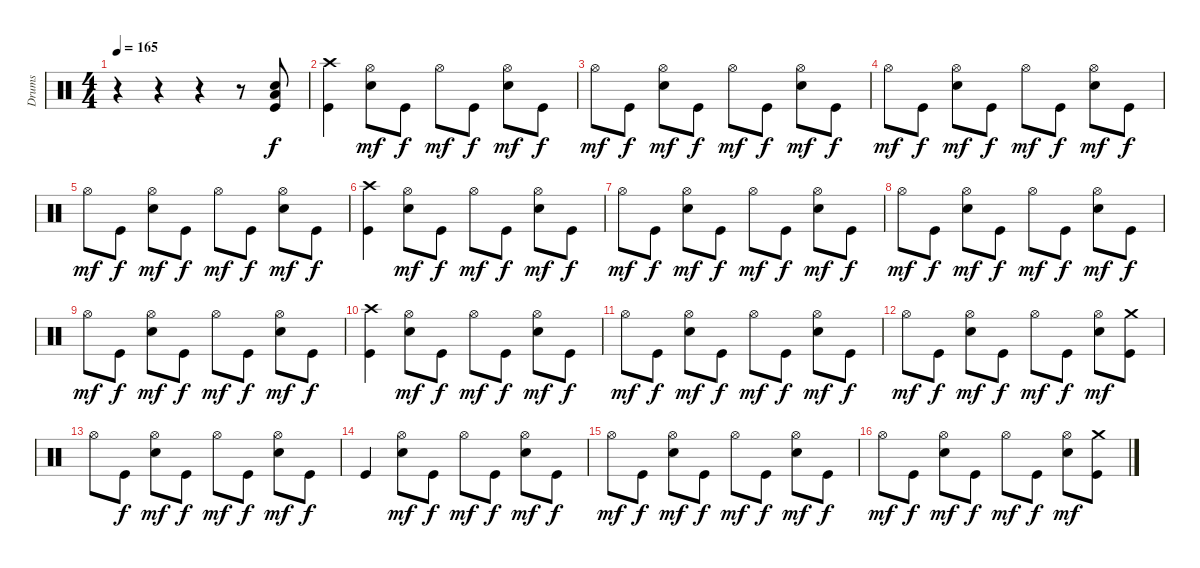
\track ("Drums" "Drums") {instrument percussion}
\staff {score}
\articulation defaults
\ts (4 4)
\tempo 165
\clef neutral
\ks c
r.4{dy f} r.4 r.4 r.8 ("Electric Snare (hit)" "Low Floor Tom (hit)" "Kick (hit)").8 |
("Kick (hit)" "Crash high (hit)").4 ("Electric Snare (hit)" "Hi-Hat (open)").8{dy mf} "Kick (hit)".8{dy f} "Hi-Hat (open)".8{dy mf} "Kick (hit)".8{dy f} ("Electric Snare (hit)" "Hi-Hat (open)").8{dy mf} "Kick (hit)".8{dy f} |
"Hi-Hat (open)".8{dy mf} "Kick (hit)".8{dy f} ("Electric Snare (hit)" "Hi-Hat (open)").8{dy mf} "Kick (hit)".8{dy f} "Hi-Hat (open)".8{dy mf} "Kick (hit)".8{dy f} ("Electric Snare (hit)" "Hi-Hat (open)").8{dy mf} "Kick (hit)".8{dy f} |
"Hi-Hat (open)".8{dy mf} "Kick (hit)".8{dy f} ("Electric Snare (hit)" "Hi-Hat (open)").8{dy mf} "Kick (hit)".8{dy f} "Hi-Hat (open)".8{dy mf} "Kick (hit)".8{dy f} ("Electric Snare (hit)" "Hi-Hat (open)").8{dy mf} "Kick (hit)".8{dy f} |
"Hi-Hat (open)".8{dy mf} "Kick (hit)".8{dy f} ("Electric Snare (hit)" "Hi-Hat (open)").8{dy mf} "Kick (hit)".8{dy f} "Hi-Hat (open)".8{dy mf} "Kick (hit)".8{dy f} ("Electric Snare (hit)" "Hi-Hat (open)").8{dy mf} "Kick (hit)".8{dy f} |
("Kick (hit)" "Crash high (hit)").4 ("Electric Snare (hit)" "Hi-Hat (open)").8{dy mf} "Kick (hit)".8{dy f} "Hi-Hat (open)".8{dy mf} "Kick (hit)".8{dy f} ("Electric Snare (hit)" "Hi-Hat (open)").8{dy mf} "Kick (hit)".8{dy f} |
"Hi-Hat (open)".8{dy mf} "Kick (hit)".8{dy f} ("Electric Snare (hit)" "Hi-Hat (open)").8{dy mf} "Kick (hit)".8{dy f} "Hi-Hat (open)".8{dy mf} "Kick (hit)".8{dy f} ("Electric Snare (hit)" "Hi-Hat (open)").8{dy mf} "Kick (hit)".8{dy f} |
"Hi-Hat (open)".8{dy mf} "Kick (hit)".8{dy f} ("Electric Snare (hit)" "Hi-Hat (open)").8{dy mf} "Kick (hit)".8{dy f} "Hi-Hat (open)".8{dy mf} "Kick (hit)".8{dy f} ("Electric Snare (hit)" "Hi-Hat (open)").8{dy mf} "Kick (hit)".8{dy f} |
"Hi-Hat (open)".8{dy mf} "Kick (hit)".8{dy f} ("Electric Snare (hit)" "Hi-Hat (open)").8{dy mf} "Kick (hit)".8{dy f} "Hi-Hat (open)".8{dy mf} "Kick (hit)".8{dy f} ("Electric Snare (hit)" "Hi-Hat (open)").8{dy mf} "Kick (hit)".8{dy f} |
("Kick (hit)" "Crash high (hit)").4 ("Electric Snare (hit)" "Hi-Hat (open)").8{dy mf} "Kick (hit)".8{dy f} "Hi-Hat (open)".8{dy mf} "Kick (hit)".8{dy f} ("Electric Snare (hit)" "Hi-Hat (open)").8{dy mf} "Kick (hit)".8{dy f} |
"Hi-Hat (open)".8{dy mf} "Kick (hit)".8{dy f} ("Electric Snare (hit)" "Hi-Hat (open)").8{dy mf} "Kick (hit)".8{dy f} "Hi-Hat (open)".8{dy mf} "Kick (hit)".8{dy f} ("Electric Snare (hit)" "Hi-Hat (open)").8{dy mf} "Kick (hit)".8{dy f} |
"Hi-Hat (open)".8{dy mf} "Kick (hit)".8{dy f} ("Electric Snare (hit)" "Hi-Hat (open)").8{dy mf} "Kick (hit)".8{dy f} "Hi-Hat (open)".8{dy mf} "Kick (hit)".8{dy f} ("Electric Snare (hit)" "Hi-Hat (open)").8{dy mf} ("Kick (hit)" "Crash medium (hit)").8 |
"Hi-Hat (open)".8 "Kick (hit)".8{dy f} ("Electric Snare (hit)" "Hi-Hat (open)").8{dy mf} "Kick (hit)".8{dy f} "Hi-Hat (open)".8{dy mf} "Kick (hit)".8{dy f} ("Electric Snare (hit)" "Hi-Hat (open)").8{dy mf} "Kick (hit)".8{dy f} |
"Kick (hit)".4 ("Electric Snare (hit)" "Hi-Hat (open)").8{dy mf} "Kick (hit)".8{dy f} "Hi-Hat (open)".8{dy mf} "Kick (hit)".8{dy f} ("Electric Snare (hit)" "Hi-Hat (open)").8{dy mf} "Kick (hit)".8{dy f} |
"Hi-Hat (open)".8{dy mf} "Kick (hit)".8{dy f} ("Electric Snare (hit)" "Hi-Hat (open)").8{dy mf} "Kick (hit)".8{dy f} "Hi-Hat (open)".8{dy mf} "Kick (hit)".8{dy f} ("Electric Snare (hit)" "Hi-Hat (open)").8{dy mf} "Kick (hit)".8{dy f} |
"Hi-Hat (open)".8{dy mf} "Kick (hit)".8{dy f} ("Electric Snare (hit)" "Hi-Hat (open)").8{dy mf} "Kick (hit)".8{dy f} "Hi-Hat (open)".8{dy mf} "Kick (hit)".8{dy f} ("Electric Snare (hit)" "Hi-Hat (open)").8{dy mf} ("Kick (hit)" "Crash medium (hit)").8
